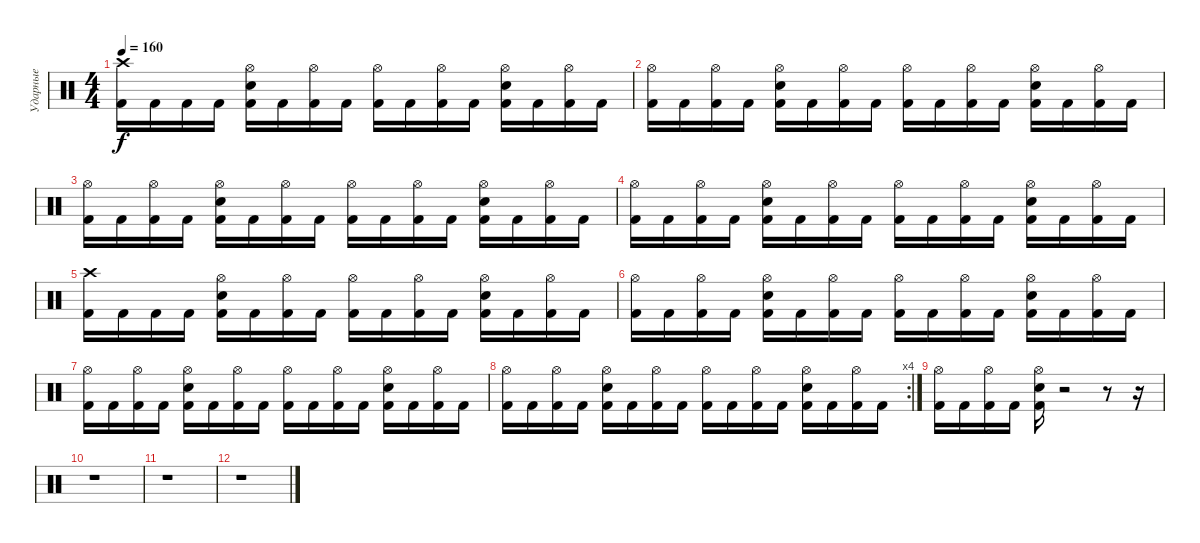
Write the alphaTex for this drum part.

\track ("Ударные" "Ударные") {instrument percussion}
\staff {score}
\articulation defaults
\ts (4 4)
\tempo 160
\clef neutral
\ks c
("Crash high (hit)" "Kick (hit) 2").16{dy f} "Kick (hit) 2".16 "Kick (hit) 2".16 "Kick (hit) 2".16 ("Electric Snare (hit)" "Hi-Hat (open)" "Kick (hit) 2").16 "Kick (hit) 2".16 ("Hi-Hat (open)" "Kick (hit) 2").16 "Kick (hit) 2".16 ("Hi-Hat (open)" "Kick (hit) 2").16 "Kick (hit) 2".16 ("Hi-Hat (open)" "Kick (hit) 2").16 "Kick (hit) 2".16 ("Electric Snare (hit)" "Hi-Hat (open)" "Kick (hit) 2").16 "Kick (hit) 2".16 ("Hi-Hat (open)" "Kick (hit) 2").16 "Kick (hit) 2".16 |
("Hi-Hat (open)" "Kick (hit) 2").16 "Kick (hit) 2".16 ("Hi-Hat (open)" "Kick (hit) 2").16 "Kick (hit) 2".16 ("Electric Snare (hit)" "Hi-Hat (open)" "Kick (hit) 2").16 "Kick (hit) 2".16 ("Hi-Hat (open)" "Kick (hit) 2").16 "Kick (hit) 2".16 ("Hi-Hat (open)" "Kick (hit) 2").16 "Kick (hit) 2".16 ("Hi-Hat (open)" "Kick (hit) 2").16 "Kick (hit) 2".16 ("Electric Snare (hit)" "Hi-Hat (open)" "Kick (hit) 2").16 "Kick (hit) 2".16 ("Hi-Hat (open)" "Kick (hit) 2").16 "Kick (hit) 2".16 |
("Hi-Hat (open)" "Kick (hit) 2").16 "Kick (hit) 2".16 ("Hi-Hat (open)" "Kick (hit) 2").16 "Kick (hit) 2".16 ("Electric Snare (hit)" "Hi-Hat (open)" "Kick (hit) 2").16 "Kick (hit) 2".16 ("Hi-Hat (open)" "Kick (hit) 2").16 "Kick (hit) 2".16 ("Hi-Hat (open)" "Kick (hit) 2").16 "Kick (hit) 2".16 ("Hi-Hat (open)" "Kick (hit) 2").16 "Kick (hit) 2".16 ("Electric Snare (hit)" "Hi-Hat (open)" "Kick (hit) 2").16 "Kick (hit) 2".16 ("Hi-Hat (open)" "Kick (hit) 2").16 "Kick (hit) 2".16 |
("Hi-Hat (open)" "Kick (hit) 2").16 "Kick (hit) 2".16 ("Hi-Hat (open)" "Kick (hit) 2").16 "Kick (hit) 2".16 ("Electric Snare (hit)" "Hi-Hat (open)" "Kick (hit) 2").16 "Kick (hit) 2".16 ("Hi-Hat (open)" "Kick (hit) 2").16 "Kick (hit) 2".16 ("Hi-Hat (open)" "Kick (hit) 2").16 "Kick (hit) 2".16 ("Hi-Hat (open)" "Kick (hit) 2").16 "Kick (hit) 2".16 ("Electric Snare (hit)" "Hi-Hat (open)" "Kick (hit) 2").16 "Kick (hit) 2".16 ("Hi-Hat (open)" "Kick (hit) 2").16 "Kick (hit) 2".16 |
("Crash high (hit)" "Kick (hit) 2").16 "Kick (hit) 2".16 "Kick (hit) 2".16 "Kick (hit) 2".16 ("Electric Snare (hit)" "Hi-Hat (open)" "Kick (hit) 2").16 "Kick (hit) 2".16 ("Hi-Hat (open)" "Kick (hit) 2").16 "Kick (hit) 2".16 ("Hi-Hat (open)" "Kick (hit) 2").16 "Kick (hit) 2".16 ("Hi-Hat (open)" "Kick (hit) 2").16 "Kick (hit) 2".16 ("Electric Snare (hit)" "Hi-Hat (open)" "Kick (hit) 2").16 "Kick (hit) 2".16 ("Hi-Hat (open)" "Kick (hit) 2").16 "Kick (hit) 2".16 |
("Hi-Hat (open)" "Kick (hit) 2").16 "Kick (hit) 2".16 ("Hi-Hat (open)" "Kick (hit) 2").16 "Kick (hit) 2".16 ("Electric Snare (hit)" "Hi-Hat (open)" "Kick (hit) 2").16 "Kick (hit) 2".16 ("Hi-Hat (open)" "Kick (hit) 2").16 "Kick (hit) 2".16 ("Hi-Hat (open)" "Kick (hit) 2").16 "Kick (hit) 2".16 ("Hi-Hat (open)" "Kick (hit) 2").16 "Kick (hit) 2".16 ("Electric Snare (hit)" "Hi-Hat (open)" "Kick (hit) 2").16 "Kick (hit) 2".16 ("Hi-Hat (open)" "Kick (hit) 2").16 "Kick (hit) 2".16 |
("Hi-Hat (open)" "Kick (hit) 2").16 "Kick (hit) 2".16 ("Hi-Hat (open)" "Kick (hit) 2").16 "Kick (hit) 2".16 ("Electric Snare (hit)" "Hi-Hat (open)" "Kick (hit) 2").16 "Kick (hit) 2".16 ("Hi-Hat (open)" "Kick (hit) 2").16 "Kick (hit) 2".16 ("Hi-Hat (open)" "Kick (hit) 2").16 "Kick (hit) 2".16 ("Hi-Hat (open)" "Kick (hit) 2").16 "Kick (hit) 2".16 ("Electric Snare (hit)" "Hi-Hat (open)" "Kick (hit) 2").16 "Kick (hit) 2".16 ("Hi-Hat (open)" "Kick (hit) 2").16 "Kick (hit) 2".16 |
\rc 4
("Hi-Hat (open)" "Kick (hit) 2").16 "Kick (hit) 2".16 ("Hi-Hat (open)" "Kick (hit) 2").16 "Kick (hit) 2".16 ("Electric Snare (hit)" "Hi-Hat (open)" "Kick (hit) 2").16 "Kick (hit) 2".16 ("Hi-Hat (open)" "Kick (hit) 2").16 "Kick (hit) 2".16 ("Hi-Hat (open)" "Kick (hit) 2").16 "Kick (hit) 2".16 ("Hi-Hat (open)" "Kick (hit) 2").16 "Kick (hit) 2".16 ("Electric Snare (hit)" "Hi-Hat (open)" "Kick (hit) 2").16 "Kick (hit) 2".16 ("Hi-Hat (open)" "Kick (hit) 2").16 "Kick (hit) 2".16 |
("Hi-Hat (open)" "Kick (hit) 2").16 "Kick (hit) 2".16 ("Hi-Hat (open)" "Kick (hit) 2").16 "Kick (hit) 2".16 ("Electric Snare (hit)" "Hi-Hat (open)" "Kick (hit) 2").16 r.2 r.8 r.16 |
r.1 |
r.1 |
r.1
